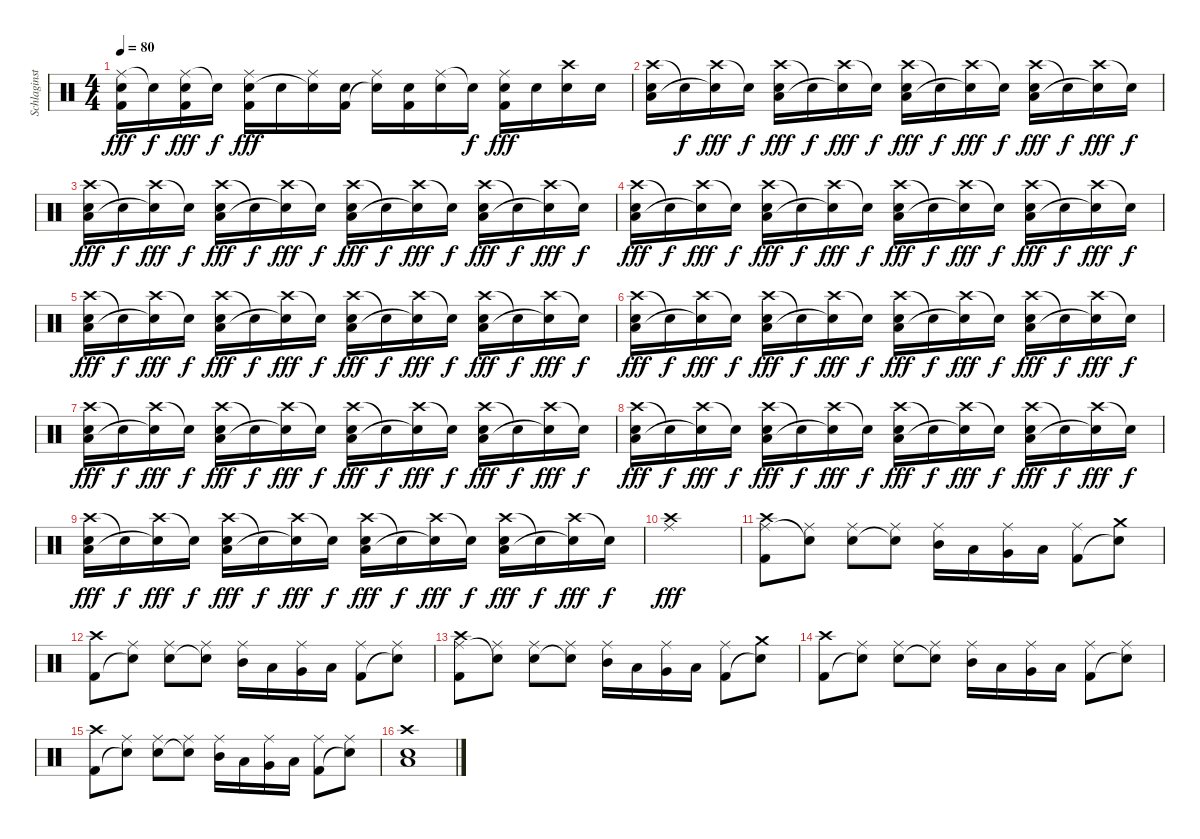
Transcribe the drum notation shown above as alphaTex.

\track ("Schlaginstrumente - Auswahl" "Schlaginst") {instrument percussion}
\staff {score}
\articulation defaults
\ts (4 4)
\tempo 80
\clef neutral
\ks c
("Ride (middle)" "Snare (hit) 2" "Kick (hit) 2").16{dy fff} "Snare (hit)"{t}.16{dy f} ("Ride (middle)" "Snare (hit) 2" "Kick (hit) 2").16{dy fff} "Snare (hit)"{t}.16{dy f} ("Ride (middle)" "Snare (hit) 2" "Kick (hit) 2").16{dy fff} "Snare (hit) 2".16 ("Ride (middle)" "Snare (hit)"{t}).16 ("Snare (hit) 2" "Kick (hit) 2").16 ("Ride (middle)" "Snare (hit) 2"{t}).16 ("Snare (hit) 2" "Kick (hit) 2").16 ("Ride (middle)" "Snare (hit) 2").16 "Snare (hit) 2"{t}.16{dy f} ("Ride (middle)" "Snare (hit) 2" "Kick (hit) 2").16{dy fff} "Snare (hit) 2".16 ("Crash high (hit)" "Snare (hit) 2").16 "Snare (hit) 2".16 |
("Crash high (hit)" "Low Floor Tom (hit)" "Snare (hit) 2").16 "Snare (hit)"{t}.16{dy f} ("Crash high (hit)" "Snare (hit)"{t}).16{dy fff} "Snare (hit)"{t}.16{dy f} ("Crash high (hit)" "Low Floor Tom (hit)" "Snare (hit) 2").16{dy fff} "Snare (hit)"{t}.16{dy f} ("Crash high (hit)" "Snare (hit)"{t}).16{dy fff} "Snare (hit)"{t}.16{dy f} ("Crash high (hit)" "Low Floor Tom (hit)" "Snare (hit) 2").16{dy fff} "Snare (hit)"{t}.16{dy f} ("Crash high (hit)" "Snare (hit)"{t}).16{dy fff} "Snare (hit)"{t}.16{dy f} ("Crash high (hit)" "Low Floor Tom (hit)" "Snare (hit) 2").16{dy fff} "Snare (hit)"{t}.16{dy f} ("Crash high (hit)" "Snare (hit)"{t}).16{dy fff} "Snare (hit)"{t}.16{dy f} |
("Crash high (hit)" "Low Floor Tom (hit)" "Snare (hit) 2").16{dy fff} "Snare (hit)"{t}.16{dy f} ("Crash high (hit)" "Snare (hit)"{t}).16{dy fff} "Snare (hit)"{t}.16{dy f} ("Crash high (hit)" "Low Floor Tom (hit)" "Snare (hit) 2").16{dy fff} "Snare (hit)"{t}.16{dy f} ("Crash high (hit)" "Snare (hit)"{t}).16{dy fff} "Snare (hit)"{t}.16{dy f} ("Crash high (hit)" "Low Floor Tom (hit)" "Snare (hit) 2").16{dy fff} "Snare (hit)"{t}.16{dy f} ("Crash high (hit)" "Snare (hit)"{t}).16{dy fff} "Snare (hit)"{t}.16{dy f} ("Crash high (hit)" "Low Floor Tom (hit)" "Snare (hit) 2").16{dy fff} "Snare (hit)"{t}.16{dy f} ("Crash high (hit)" "Snare (hit)"{t}).16{dy fff} "Snare (hit)"{t}.16{dy f} |
("Crash high (hit)" "Low Floor Tom (hit)" "Snare (hit) 2").16{dy fff} "Snare (hit)"{t}.16{dy f} ("Crash high (hit)" "Snare (hit)"{t}).16{dy fff} "Snare (hit)"{t}.16{dy f} ("Crash high (hit)" "Low Floor Tom (hit)" "Snare (hit) 2").16{dy fff} "Snare (hit)"{t}.16{dy f} ("Crash high (hit)" "Snare (hit)"{t}).16{dy fff} "Snare (hit)"{t}.16{dy f} ("Crash high (hit)" "Low Floor Tom (hit)" "Snare (hit) 2").16{dy fff} "Snare (hit)"{t}.16{dy f} ("Crash high (hit)" "Snare (hit)"{t}).16{dy fff} "Snare (hit)"{t}.16{dy f} ("Crash high (hit)" "Low Floor Tom (hit)" "Snare (hit) 2").16{dy fff} "Snare (hit)"{t}.16{dy f} ("Crash high (hit)" "Snare (hit)"{t}).16{dy fff} "Snare (hit)"{t}.16{dy f} |
("Crash high (hit)" "Low Floor Tom (hit)" "Snare (hit) 2").16{dy fff} "Snare (hit)"{t}.16{dy f} ("Crash high (hit)" "Snare (hit)"{t}).16{dy fff} "Snare (hit)"{t}.16{dy f} ("Crash high (hit)" "Low Floor Tom (hit)" "Snare (hit) 2").16{dy fff} "Snare (hit)"{t}.16{dy f} ("Crash high (hit)" "Snare (hit)"{t}).16{dy fff} "Snare (hit)"{t}.16{dy f} ("Crash high (hit)" "Low Floor Tom (hit)" "Snare (hit) 2").16{dy fff} "Snare (hit)"{t}.16{dy f} ("Crash high (hit)" "Snare (hit)"{t}).16{dy fff} "Snare (hit)"{t}.16{dy f} ("Crash high (hit)" "Low Floor Tom (hit)" "Snare (hit) 2").16{dy fff} "Snare (hit)"{t}.16{dy f} ("Crash high (hit)" "Snare (hit)"{t}).16{dy fff} "Snare (hit)"{t}.16{dy f} |
("Crash high (hit)" "Low Floor Tom (hit)" "Snare (hit) 2").16{dy fff} "Snare (hit)"{t}.16{dy f} ("Crash high (hit)" "Snare (hit)"{t}).16{dy fff} "Snare (hit)"{t}.16{dy f} ("Crash high (hit)" "Low Floor Tom (hit)" "Snare (hit) 2").16{dy fff} "Snare (hit)"{t}.16{dy f} ("Crash high (hit)" "Snare (hit)"{t}).16{dy fff} "Snare (hit)"{t}.16{dy f} ("Crash high (hit)" "Low Floor Tom (hit)" "Snare (hit) 2").16{dy fff} "Snare (hit)"{t}.16{dy f} ("Crash high (hit)" "Snare (hit)"{t}).16{dy fff} "Snare (hit)"{t}.16{dy f} ("Crash high (hit)" "Low Floor Tom (hit)" "Snare (hit) 2").16{dy fff} "Snare (hit)"{t}.16{dy f} ("Crash high (hit)" "Snare (hit)"{t}).16{dy fff} "Snare (hit)"{t}.16{dy f} |
("Crash high (hit)" "Low Floor Tom (hit)" "Snare (hit) 2").16{dy fff} "Snare (hit)"{t}.16{dy f} ("Crash high (hit)" "Snare (hit)"{t}).16{dy fff} "Snare (hit)"{t}.16{dy f} ("Crash high (hit)" "Low Floor Tom (hit)" "Snare (hit) 2").16{dy fff} "Snare (hit)"{t}.16{dy f} ("Crash high (hit)" "Snare (hit)"{t}).16{dy fff} "Snare (hit)"{t}.16{dy f} ("Crash high (hit)" "Low Floor Tom (hit)" "Snare (hit) 2").16{dy fff} "Snare (hit)"{t}.16{dy f} ("Crash high (hit)" "Snare (hit)"{t}).16{dy fff} "Snare (hit)"{t}.16{dy f} ("Crash high (hit)" "Low Floor Tom (hit)" "Snare (hit) 2").16{dy fff} "Snare (hit)"{t}.16{dy f} ("Crash high (hit)" "Snare (hit)"{t}).16{dy fff} "Snare (hit)"{t}.16{dy f} |
("Crash high (hit)" "Low Floor Tom (hit)" "Snare (hit) 2").16{dy fff} "Snare (hit)"{t}.16{dy f} ("Crash high (hit)" "Snare (hit)"{t}).16{dy fff} "Snare (hit)"{t}.16{dy f} ("Crash high (hit)" "Low Floor Tom (hit)" "Snare (hit) 2").16{dy fff} "Snare (hit)"{t}.16{dy f} ("Crash high (hit)" "Snare (hit)"{t}).16{dy fff} "Snare (hit)"{t}.16{dy f} ("Crash high (hit)" "Low Floor Tom (hit)" "Snare (hit) 2").16{dy fff} "Snare (hit)"{t}.16{dy f} ("Crash high (hit)" "Snare (hit)"{t}).16{dy fff} "Snare (hit)"{t}.16{dy f} ("Crash high (hit)" "Low Floor Tom (hit)" "Snare (hit) 2").16{dy fff} "Snare (hit)"{t}.16{dy f} ("Crash high (hit)" "Snare (hit)"{t}).16{dy fff} "Snare (hit)"{t}.16{dy f} |
("Crash high (hit)" "Low Floor Tom (hit)" "Snare (hit) 2").16{dy fff} "Snare (hit)"{t}.16{dy f} ("Crash high (hit)" "Snare (hit)"{t}).16{dy fff} "Snare (hit)"{t}.16{dy f} ("Crash high (hit)" "Low Floor Tom (hit)" "Snare (hit) 2").16{dy fff} "Snare (hit)"{t}.16{dy f} ("Crash high (hit)" "Snare (hit)"{t}).16{dy fff} "Snare (hit)"{t}.16{dy f} ("Crash high (hit)" "Low Floor Tom (hit)" "Snare (hit) 2").16{dy fff} "Snare (hit)"{t}.16{dy f} ("Crash high (hit)" "Snare (hit)"{t}).16{dy fff} "Snare (hit)"{t}.16{dy f} ("Crash high (hit)" "Low Floor Tom (hit)" "Snare (hit) 2").16{dy fff} "Snare (hit)"{t}.16{dy f} ("Crash high (hit)" "Snare (hit)"{t}).16{dy fff} "Snare (hit)"{t}.16{dy f} |
("Crash high (hit)" "Ride (middle)").1{dy fff} |
("Crash high (hit)" "Ride (middle)" "Kick (hit) 2").8 ("Ride (middle)" "Snare (hit)"{t}).8 ("Ride (middle)" "Snare (hit) 2").8 ("Ride (middle)" "Snare (hit)"{t}).8 ("Ride (middle)" "Mid Tom (hit)").16 "Low Tom (hit)".16 ("Ride (middle)" "Very Low Tom (hit)").16 "Low Floor Tom (hit)".16 ("Ride (middle)" "Kick (hit) 2").8 ("Crash medium (hit)" "Snare (hit)"{t}).8 |
("Crash high (hit)" "Kick (hit) 2").8 ("Ride (middle)" "Snare (hit)"{t}).8 ("Ride (middle)" "Snare (hit) 2").8 ("Ride (middle)" "Snare (hit)"{t}).8 ("Ride (middle)" "Mid Tom (hit)").16 "Low Tom (hit)".16 ("Ride (middle)" "Very Low Tom (hit)").16 "Low Floor Tom (hit)".16 ("Ride (middle)" "Kick (hit) 2").8 ("Ride (middle)" "Snare (hit)"{t}).8 |
("Crash high (hit)" "Ride (middle)" "Kick (hit) 2").8 ("Ride (middle)" "Snare (hit)"{t}).8 ("Ride (middle)" "Snare (hit) 2").8 ("Ride (middle)" "Snare (hit)"{t}).8 ("Ride (middle)" "Mid Tom (hit)").16 "Low Tom (hit)".16 ("Ride (middle)" "Very Low Tom (hit)").16 "Low Floor Tom (hit)".16 ("Ride (middle)" "Kick (hit) 2").8 ("Crash medium (hit)" "Snare (hit)"{t}).8 |
("Crash high (hit)" "Kick (hit) 2").8 ("Ride (middle)" "Snare (hit)"{t}).8 ("Ride (middle)" "Snare (hit) 2").8 ("Ride (middle)" "Snare (hit)"{t}).8 ("Ride (middle)" "Mid Tom (hit)").16 "Low Tom (hit)".16 ("Ride (middle)" "Very Low Tom (hit)").16 "Low Floor Tom (hit)".16 ("Ride (middle)" "Kick (hit) 2").8 ("Ride (middle)" "Snare (hit)"{t}).8 |
("Crash high (hit)" "Kick (hit) 2").8 ("Ride (middle)" "Snare (hit)"{t}).8 ("Ride (middle)" "Snare (hit) 2").8 ("Ride (middle)" "Snare (hit)"{t}).8 ("Ride (middle)" "Mid Tom (hit)").16 "Low Tom (hit)".16 ("Ride (middle)" "Very Low Tom (hit)").16 "Low Floor Tom (hit)".16 ("Ride (middle)" "Kick (hit) 2").8 ("Ride (middle)" "Snare (hit)"{t}).8 |
("Crash high (hit)" "Low Floor Tom (hit)" "Snare (hit) 2").1
